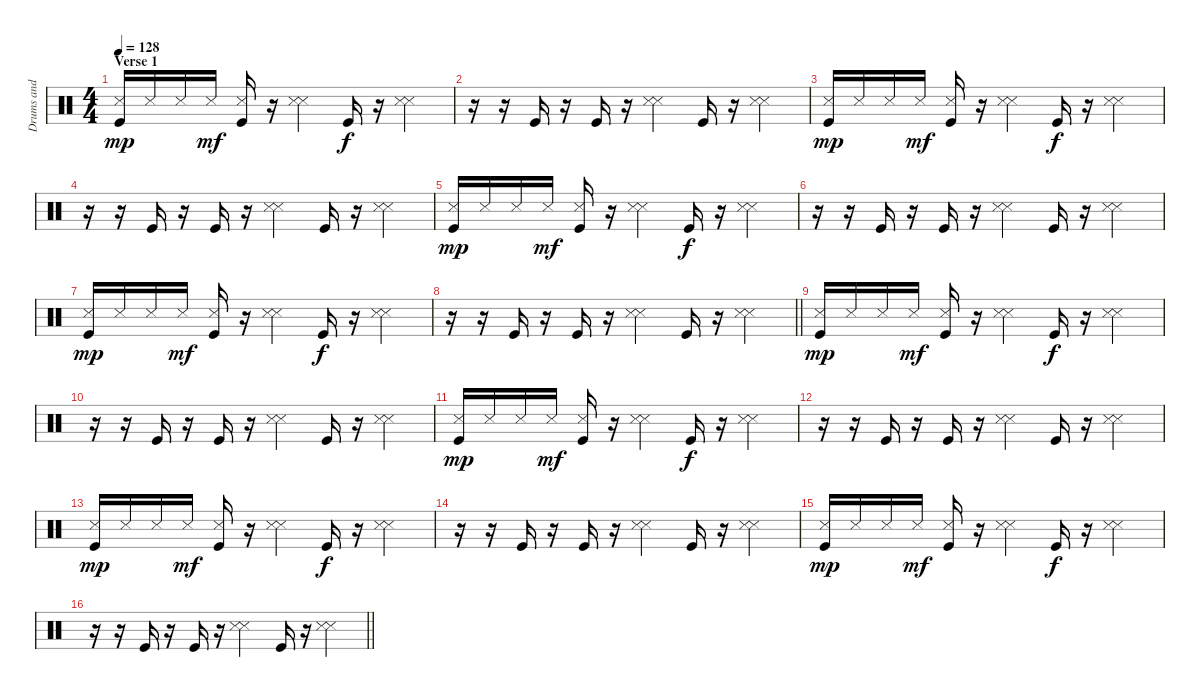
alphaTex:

\track ("Drums and Percussions" "Drums and ") {instrument percussion}
\staff {score}
\articulation defaults
\ts (4 4)
\section ("" "Verse 1")
\tempo 128
\clef neutral
\ks c
("Snare (side stick) 3" "Kick (hit)").16{dy mp} "Snare (side stick) 3".16 "Snare (side stick) 3".16 "Snare (side stick) 3".16{dy mf} ("Snare (side stick) 3" "Kick (hit)").16 r.16 ("Snare (side stick) 3" "Snare (side stick) 3").4{bd 60} "Kick (hit)".16{dy f} r.16 ("Snare (side stick) 3" "Snare (side stick) 3").4{bd 120} |
r.16 r.16 "Kick (hit)".16 r.16 "Kick (hit)".16 r.16 ("Snare (side stick) 3" "Snare (side stick) 3").4{bd 120} "Kick (hit)".16 r.16 ("Snare (side stick) 3" "Snare (side stick) 3").4{bd 120} |
("Snare (side stick) 3" "Kick (hit)").16{dy mp} "Snare (side stick) 3".16 "Snare (side stick) 3".16 "Snare (side stick) 3".16{dy mf} ("Snare (side stick) 3" "Kick (hit)").16 r.16 ("Snare (side stick) 3" "Snare (side stick) 3").4{bd 60} "Kick (hit)".16{dy f} r.16 ("Snare (side stick) 3" "Snare (side stick) 3").4{bd 120} |
r.16 r.16 "Kick (hit)".16 r.16 "Kick (hit)".16 r.16 ("Snare (side stick) 3" "Snare (side stick) 3").4{bd 120} "Kick (hit)".16 r.16 ("Snare (side stick) 3" "Snare (side stick) 3").4{bd 120} |
("Snare (side stick) 3" "Kick (hit)").16{dy mp} "Snare (side stick) 3".16 "Snare (side stick) 3".16 "Snare (side stick) 3".16{dy mf} ("Snare (side stick) 3" "Kick (hit)").16 r.16 ("Snare (side stick) 3" "Snare (side stick) 3").4{bd 60} "Kick (hit)".16{dy f} r.16 ("Snare (side stick) 3" "Snare (side stick) 3").4{bd 120} |
r.16 r.16 "Kick (hit)".16 r.16 "Kick (hit)".16 r.16 ("Snare (side stick) 3" "Snare (side stick) 3").4{bd 120} "Kick (hit)".16 r.16 ("Snare (side stick) 3" "Snare (side stick) 3").4{bd 120} |
("Snare (side stick) 3" "Kick (hit)").16{dy mp} "Snare (side stick) 3".16 "Snare (side stick) 3".16 "Snare (side stick) 3".16{dy mf} ("Snare (side stick) 3" "Kick (hit)").16 r.16 ("Snare (side stick) 3" "Snare (side stick) 3").4{bd 60} "Kick (hit)".16{dy f} r.16 ("Snare (side stick) 3" "Snare (side stick) 3").4{bd 120} |
\barLineRight lightlight
r.16 r.16 "Kick (hit)".16 r.16 "Kick (hit)".16 r.16 ("Snare (side stick) 3" "Snare (side stick) 3").4{bd 120} "Kick (hit)".16 r.16 ("Snare (side stick) 3" "Snare (side stick) 3").4{bd 120} |
("Snare (side stick) 3" "Kick (hit)").16{dy mp} "Snare (side stick) 3".16 "Snare (side stick) 3".16 "Snare (side stick) 3".16{dy mf} ("Snare (side stick) 3" "Kick (hit)").16 r.16 ("Snare (side stick) 3" "Snare (side stick) 3").4{bd 60} "Kick (hit)".16{dy f} r.16 ("Snare (side stick) 3" "Snare (side stick) 3").4{bd 120} |
r.16 r.16 "Kick (hit)".16 r.16 "Kick (hit)".16 r.16 ("Snare (side stick) 3" "Snare (side stick) 3").4{bd 120} "Kick (hit)".16 r.16 ("Snare (side stick) 3" "Snare (side stick) 3").4{bd 120} |
("Snare (side stick) 3" "Kick (hit)").16{dy mp} "Snare (side stick) 3".16 "Snare (side stick) 3".16 "Snare (side stick) 3".16{dy mf} ("Snare (side stick) 3" "Kick (hit)").16 r.16 ("Snare (side stick) 3" "Snare (side stick) 3").4{bd 60} "Kick (hit)".16{dy f} r.16 ("Snare (side stick) 3" "Snare (side stick) 3").4{bd 120} |
r.16 r.16 "Kick (hit)".16 r.16 "Kick (hit)".16 r.16 ("Snare (side stick) 3" "Snare (side stick) 3").4{bd 120} "Kick (hit)".16 r.16 ("Snare (side stick) 3" "Snare (side stick) 3").4{bd 120} |
("Snare (side stick) 3" "Kick (hit)").16{dy mp} "Snare (side stick) 3".16 "Snare (side stick) 3".16 "Snare (side stick) 3".16{dy mf} ("Snare (side stick) 3" "Kick (hit)").16 r.16 ("Snare (side stick) 3" "Snare (side stick) 3").4{bd 60} "Kick (hit)".16{dy f} r.16 ("Snare (side stick) 3" "Snare (side stick) 3").4{bd 120} |
r.16 r.16 "Kick (hit)".16 r.16 "Kick (hit)".16 r.16 ("Snare (side stick) 3" "Snare (side stick) 3").4{bd 120} "Kick (hit)".16 r.16 ("Snare (side stick) 3" "Snare (side stick) 3").4{bd 120} |
("Snare (side stick) 3" "Kick (hit)").16{dy mp} "Snare (side stick) 3".16 "Snare (side stick) 3".16 "Snare (side stick) 3".16{dy mf} ("Snare (side stick) 3" "Kick (hit)").16 r.16 ("Snare (side stick) 3" "Snare (side stick) 3").4{bd 60} "Kick (hit)".16{dy f} r.16 ("Snare (side stick) 3" "Snare (side stick) 3").4{bd 120} |
\barLineRight lightlight
r.16 r.16 "Kick (hit)".16 r.16 "Kick (hit)".16 r.16 ("Snare (side stick) 3" "Snare (side stick) 3").4{bd 120} "Kick (hit)".16 r.16 ("Snare (side stick) 3" "Snare (side stick) 3").4{bd 120}
